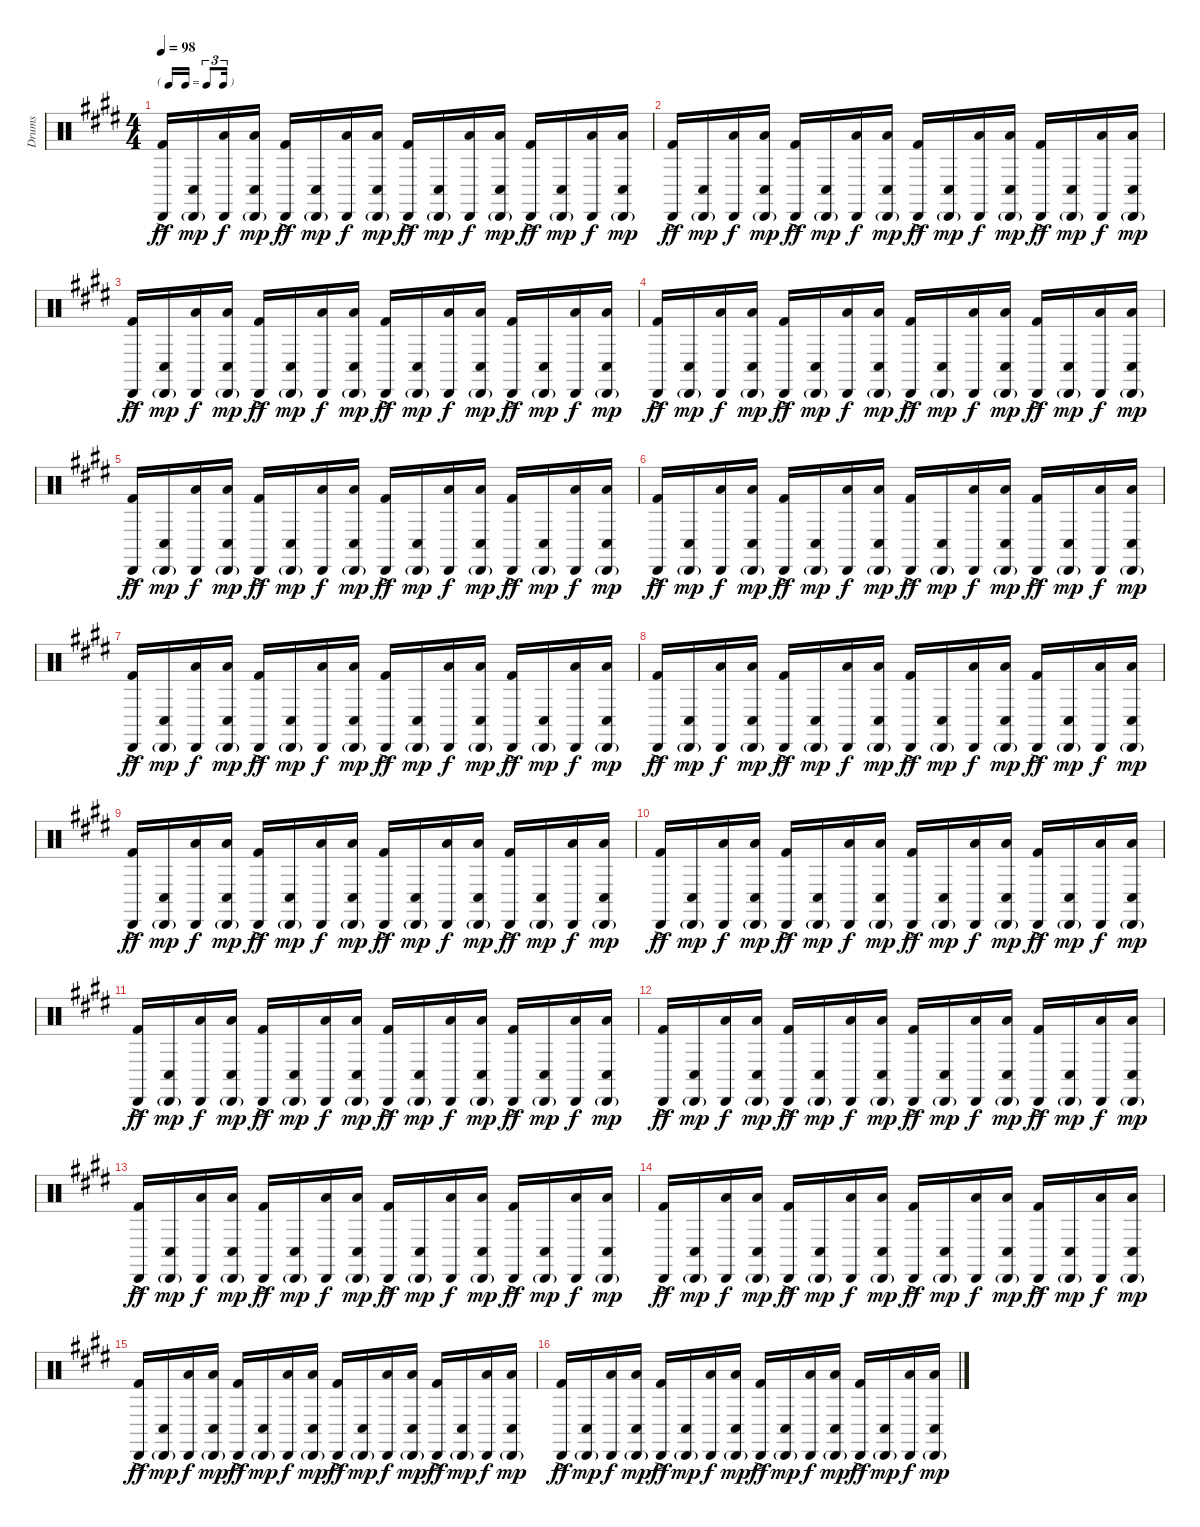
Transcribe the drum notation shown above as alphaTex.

\track ("Drums" "Drums") {instrument percussion}
\staff {score}
\articulation defaults
\ts (4 4)
\tf triplet16th
\tempo 98
\clef neutral
\ks e
("Cabasa (hit)" "Kick (hit) 2"{ac}).16{dy ff} ("Cabasa (hit)"{g} "Conga low (hit)").16{dy mp} ("Cabasa (hit)" "Low Tom (hit)").16{dy f} ("Cabasa (hit)"{g} "Low Tom (hit)" "Conga low (hit)").16{dy mp} ("Cabasa (hit)" "Kick (hit) 2"{ac}).16{dy ff} ("Cabasa (hit)"{g} "Conga low (hit)").16{dy mp} ("Cabasa (hit)" "Low Tom (hit)").16{dy f} ("Cabasa (hit)"{g} "Low Tom (hit)" "Conga low (hit)").16{dy mp} ("Cabasa (hit)" "Kick (hit) 2"{ac}).16{dy ff} ("Cabasa (hit)"{g} "Conga low (hit)").16{dy mp} ("Cabasa (hit)" "Low Tom (hit)").16{dy f} ("Cabasa (hit)"{g} "Low Tom (hit)" "Conga low (hit)").16{dy mp} ("Cabasa (hit)" "Kick (hit) 2"{ac}).16{dy ff} ("Cabasa (hit)"{g} "Conga low (hit)").16{dy mp} ("Cabasa (hit)" "Low Tom (hit)").16{dy f} ("Cabasa (hit)"{g} "Low Tom (hit)" "Conga low (hit)").16{dy mp} |
("Cabasa (hit)" "Kick (hit) 2"{ac}).16{dy ff} ("Cabasa (hit)"{g} "Conga low (hit)").16{dy mp} ("Cabasa (hit)" "Low Tom (hit)").16{dy f} ("Cabasa (hit)"{g} "Low Tom (hit)" "Conga low (hit)").16{dy mp} ("Cabasa (hit)" "Kick (hit) 2"{ac}).16{dy ff} ("Cabasa (hit)"{g} "Conga low (hit)").16{dy mp} ("Cabasa (hit)" "Low Tom (hit)").16{dy f} ("Cabasa (hit)"{g} "Low Tom (hit)" "Conga low (hit)").16{dy mp} ("Cabasa (hit)" "Kick (hit) 2"{ac}).16{dy ff} ("Cabasa (hit)"{g} "Conga low (hit)").16{dy mp} ("Cabasa (hit)" "Low Tom (hit)").16{dy f} ("Cabasa (hit)"{g} "Low Tom (hit)" "Conga low (hit)").16{dy mp} ("Cabasa (hit)" "Kick (hit) 2"{ac}).16{dy ff} ("Cabasa (hit)"{g} "Conga low (hit)").16{dy mp} ("Cabasa (hit)" "Low Tom (hit)").16{dy f} ("Cabasa (hit)"{g} "Low Tom (hit)" "Conga low (hit)").16{dy mp} |
("Cabasa (hit)" "Kick (hit) 2"{ac}).16{dy ff} ("Cabasa (hit)"{g} "Conga low (hit)").16{dy mp} ("Cabasa (hit)" "Low Tom (hit)").16{dy f} ("Cabasa (hit)"{g} "Low Tom (hit)" "Conga low (hit)").16{dy mp} ("Cabasa (hit)" "Kick (hit) 2"{ac}).16{dy ff} ("Cabasa (hit)"{g} "Conga low (hit)").16{dy mp} ("Cabasa (hit)" "Low Tom (hit)").16{dy f} ("Cabasa (hit)"{g} "Low Tom (hit)" "Conga low (hit)").16{dy mp} ("Cabasa (hit)" "Kick (hit) 2"{ac}).16{dy ff} ("Cabasa (hit)"{g} "Conga low (hit)").16{dy mp} ("Cabasa (hit)" "Low Tom (hit)").16{dy f} ("Cabasa (hit)"{g} "Low Tom (hit)" "Conga low (hit)").16{dy mp} ("Cabasa (hit)" "Kick (hit) 2"{ac}).16{dy ff} ("Cabasa (hit)"{g} "Conga low (hit)").16{dy mp} ("Cabasa (hit)" "Low Tom (hit)").16{dy f} ("Cabasa (hit)"{g} "Low Tom (hit)" "Conga low (hit)").16{dy mp} |
("Cabasa (hit)" "Kick (hit) 2"{ac}).16{dy ff} ("Cabasa (hit)"{g} "Conga low (hit)").16{dy mp} ("Cabasa (hit)" "Low Tom (hit)").16{dy f} ("Cabasa (hit)"{g} "Low Tom (hit)" "Conga low (hit)").16{dy mp} ("Cabasa (hit)" "Kick (hit) 2"{ac}).16{dy ff} ("Cabasa (hit)"{g} "Conga low (hit)").16{dy mp} ("Cabasa (hit)" "Low Tom (hit)").16{dy f} ("Cabasa (hit)"{g} "Low Tom (hit)" "Conga low (hit)").16{dy mp} ("Cabasa (hit)" "Kick (hit) 2"{ac}).16{dy ff} ("Cabasa (hit)"{g} "Conga low (hit)").16{dy mp} ("Cabasa (hit)" "Low Tom (hit)").16{dy f} ("Cabasa (hit)"{g} "Low Tom (hit)" "Conga low (hit)").16{dy mp} ("Cabasa (hit)" "Kick (hit) 2"{ac}).16{dy ff} ("Cabasa (hit)"{g} "Conga low (hit)").16{dy mp} ("Cabasa (hit)" "Low Tom (hit)").16{dy f} ("Cabasa (hit)"{g} "Low Tom (hit)" "Conga low (hit)").16{dy mp} |
("Cabasa (hit)" "Kick (hit) 2"{ac}).16{dy ff} ("Cabasa (hit)"{g} "Conga low (hit)").16{dy mp} ("Cabasa (hit)" "Low Tom (hit)").16{dy f} ("Cabasa (hit)"{g} "Low Tom (hit)" "Conga low (hit)").16{dy mp} ("Cabasa (hit)" "Kick (hit) 2"{ac}).16{dy ff} ("Cabasa (hit)"{g} "Conga low (hit)").16{dy mp} ("Cabasa (hit)" "Low Tom (hit)").16{dy f} ("Cabasa (hit)"{g} "Low Tom (hit)" "Conga low (hit)").16{dy mp} ("Cabasa (hit)" "Kick (hit) 2"{ac}).16{dy ff} ("Cabasa (hit)"{g} "Conga low (hit)").16{dy mp} ("Cabasa (hit)" "Low Tom (hit)").16{dy f} ("Cabasa (hit)"{g} "Low Tom (hit)" "Conga low (hit)").16{dy mp} ("Cabasa (hit)" "Kick (hit) 2"{ac}).16{dy ff} ("Cabasa (hit)"{g} "Conga low (hit)").16{dy mp} ("Cabasa (hit)" "Low Tom (hit)").16{dy f} ("Cabasa (hit)"{g} "Low Tom (hit)" "Conga low (hit)").16{dy mp} |
("Cabasa (hit)" "Kick (hit) 2"{ac}).16{dy ff} ("Cabasa (hit)"{g} "Conga low (hit)").16{dy mp} ("Cabasa (hit)" "Low Tom (hit)").16{dy f} ("Cabasa (hit)"{g} "Low Tom (hit)" "Conga low (hit)").16{dy mp} ("Cabasa (hit)" "Kick (hit) 2"{ac}).16{dy ff} ("Cabasa (hit)"{g} "Conga low (hit)").16{dy mp} ("Cabasa (hit)" "Low Tom (hit)").16{dy f} ("Cabasa (hit)"{g} "Low Tom (hit)" "Conga low (hit)").16{dy mp} ("Cabasa (hit)" "Kick (hit) 2"{ac}).16{dy ff} ("Cabasa (hit)"{g} "Conga low (hit)").16{dy mp} ("Cabasa (hit)" "Low Tom (hit)").16{dy f} ("Cabasa (hit)"{g} "Low Tom (hit)" "Conga low (hit)").16{dy mp} ("Cabasa (hit)" "Kick (hit) 2"{ac}).16{dy ff} ("Cabasa (hit)"{g} "Conga low (hit)").16{dy mp} ("Cabasa (hit)" "Low Tom (hit)").16{dy f} ("Cabasa (hit)"{g} "Low Tom (hit)" "Conga low (hit)").16{dy mp} |
("Cabasa (hit)" "Kick (hit) 2"{ac}).16{dy ff} ("Cabasa (hit)"{g} "Conga low (hit)").16{dy mp} ("Cabasa (hit)" "Low Tom (hit)").16{dy f} ("Cabasa (hit)"{g} "Low Tom (hit)" "Conga low (hit)").16{dy mp} ("Cabasa (hit)" "Kick (hit) 2"{ac}).16{dy ff} ("Cabasa (hit)"{g} "Conga low (hit)").16{dy mp} ("Cabasa (hit)" "Low Tom (hit)").16{dy f} ("Cabasa (hit)"{g} "Low Tom (hit)" "Conga low (hit)").16{dy mp} ("Cabasa (hit)" "Kick (hit) 2"{ac}).16{dy ff} ("Cabasa (hit)"{g} "Conga low (hit)").16{dy mp} ("Cabasa (hit)" "Low Tom (hit)").16{dy f} ("Cabasa (hit)"{g} "Low Tom (hit)" "Conga low (hit)").16{dy mp} ("Cabasa (hit)" "Kick (hit) 2"{ac}).16{dy ff} ("Cabasa (hit)"{g} "Conga low (hit)").16{dy mp} ("Cabasa (hit)" "Low Tom (hit)").16{dy f} ("Cabasa (hit)"{g} "Low Tom (hit)" "Conga low (hit)").16{dy mp} |
("Cabasa (hit)" "Kick (hit) 2"{ac}).16{dy ff} ("Cabasa (hit)"{g} "Conga low (hit)").16{dy mp} ("Cabasa (hit)" "Low Tom (hit)").16{dy f} ("Cabasa (hit)"{g} "Low Tom (hit)" "Conga low (hit)").16{dy mp} ("Cabasa (hit)" "Kick (hit) 2"{ac}).16{dy ff} ("Cabasa (hit)"{g} "Conga low (hit)").16{dy mp} ("Cabasa (hit)" "Low Tom (hit)").16{dy f} ("Cabasa (hit)"{g} "Low Tom (hit)" "Conga low (hit)").16{dy mp} ("Cabasa (hit)" "Kick (hit) 2"{ac}).16{dy ff} ("Cabasa (hit)"{g} "Conga low (hit)").16{dy mp} ("Cabasa (hit)" "Low Tom (hit)").16{dy f} ("Cabasa (hit)"{g} "Low Tom (hit)" "Conga low (hit)").16{dy mp} ("Cabasa (hit)" "Kick (hit) 2"{ac}).16{dy ff} ("Cabasa (hit)"{g} "Conga low (hit)").16{dy mp} ("Cabasa (hit)" "Low Tom (hit)").16{dy f} ("Cabasa (hit)"{g} "Low Tom (hit)" "Conga low (hit)").16{dy mp} |
("Cabasa (hit)" "Kick (hit) 2"{ac}).16{dy ff} ("Cabasa (hit)"{g} "Conga low (hit)").16{dy mp} ("Cabasa (hit)" "Low Tom (hit)").16{dy f} ("Cabasa (hit)"{g} "Low Tom (hit)" "Conga low (hit)").16{dy mp} ("Cabasa (hit)" "Kick (hit) 2"{ac}).16{dy ff} ("Cabasa (hit)"{g} "Conga low (hit)").16{dy mp} ("Cabasa (hit)" "Low Tom (hit)").16{dy f} ("Cabasa (hit)"{g} "Low Tom (hit)" "Conga low (hit)").16{dy mp} ("Cabasa (hit)" "Kick (hit) 2"{ac}).16{dy ff} ("Cabasa (hit)"{g} "Conga low (hit)").16{dy mp} ("Cabasa (hit)" "Low Tom (hit)").16{dy f} ("Cabasa (hit)"{g} "Low Tom (hit)" "Conga low (hit)").16{dy mp} ("Cabasa (hit)" "Kick (hit) 2"{ac}).16{dy ff} ("Cabasa (hit)"{g} "Conga low (hit)").16{dy mp} ("Cabasa (hit)" "Low Tom (hit)").16{dy f} ("Cabasa (hit)"{g} "Low Tom (hit)" "Conga low (hit)").16{dy mp} |
("Cabasa (hit)" "Kick (hit) 2"{ac}).16{dy ff} ("Cabasa (hit)"{g} "Conga low (hit)").16{dy mp} ("Cabasa (hit)" "Low Tom (hit)").16{dy f} ("Cabasa (hit)"{g} "Low Tom (hit)" "Conga low (hit)").16{dy mp} ("Cabasa (hit)" "Kick (hit) 2"{ac}).16{dy ff} ("Cabasa (hit)"{g} "Conga low (hit)").16{dy mp} ("Cabasa (hit)" "Low Tom (hit)").16{dy f} ("Cabasa (hit)"{g} "Low Tom (hit)" "Conga low (hit)").16{dy mp} ("Cabasa (hit)" "Kick (hit) 2"{ac}).16{dy ff} ("Cabasa (hit)"{g} "Conga low (hit)").16{dy mp} ("Cabasa (hit)" "Low Tom (hit)").16{dy f} ("Cabasa (hit)"{g} "Low Tom (hit)" "Conga low (hit)").16{dy mp} ("Cabasa (hit)" "Kick (hit) 2"{ac}).16{dy ff} ("Cabasa (hit)"{g} "Conga low (hit)").16{dy mp} ("Cabasa (hit)" "Low Tom (hit)").16{dy f} ("Cabasa (hit)"{g} "Low Tom (hit)" "Conga low (hit)").16{dy mp} |
("Cabasa (hit)" "Kick (hit) 2"{ac}).16{dy ff} ("Cabasa (hit)"{g} "Conga low (hit)").16{dy mp} ("Cabasa (hit)" "Low Tom (hit)").16{dy f} ("Cabasa (hit)"{g} "Low Tom (hit)" "Conga low (hit)").16{dy mp} ("Cabasa (hit)" "Kick (hit) 2"{ac}).16{dy ff} ("Cabasa (hit)"{g} "Conga low (hit)").16{dy mp} ("Cabasa (hit)" "Low Tom (hit)").16{dy f} ("Cabasa (hit)"{g} "Low Tom (hit)" "Conga low (hit)").16{dy mp} ("Cabasa (hit)" "Kick (hit) 2"{ac}).16{dy ff} ("Cabasa (hit)"{g} "Conga low (hit)").16{dy mp} ("Cabasa (hit)" "Low Tom (hit)").16{dy f} ("Cabasa (hit)"{g} "Low Tom (hit)" "Conga low (hit)").16{dy mp} ("Cabasa (hit)" "Kick (hit) 2"{ac}).16{dy ff} ("Cabasa (hit)"{g} "Conga low (hit)").16{dy mp} ("Cabasa (hit)" "Low Tom (hit)").16{dy f} ("Cabasa (hit)"{g} "Low Tom (hit)" "Conga low (hit)").16{dy mp} |
("Cabasa (hit)" "Kick (hit) 2"{ac}).16{dy ff} ("Cabasa (hit)"{g} "Conga low (hit)").16{dy mp} ("Cabasa (hit)" "Low Tom (hit)").16{dy f} ("Cabasa (hit)"{g} "Low Tom (hit)" "Conga low (hit)").16{dy mp} ("Cabasa (hit)" "Kick (hit) 2"{ac}).16{dy ff} ("Cabasa (hit)"{g} "Conga low (hit)").16{dy mp} ("Cabasa (hit)" "Low Tom (hit)").16{dy f} ("Cabasa (hit)"{g} "Low Tom (hit)" "Conga low (hit)").16{dy mp} ("Cabasa (hit)" "Kick (hit) 2"{ac}).16{dy ff} ("Cabasa (hit)"{g} "Conga low (hit)").16{dy mp} ("Cabasa (hit)" "Low Tom (hit)").16{dy f} ("Cabasa (hit)"{g} "Low Tom (hit)" "Conga low (hit)").16{dy mp} ("Cabasa (hit)" "Kick (hit) 2"{ac}).16{dy ff} ("Cabasa (hit)"{g} "Conga low (hit)").16{dy mp} ("Cabasa (hit)" "Low Tom (hit)").16{dy f} ("Cabasa (hit)"{g} "Low Tom (hit)" "Conga low (hit)").16{dy mp} |
("Cabasa (hit)" "Kick (hit) 2"{ac}).16{dy ff} ("Cabasa (hit)"{g} "Conga low (hit)").16{dy mp} ("Cabasa (hit)" "Low Tom (hit)").16{dy f} ("Cabasa (hit)"{g} "Low Tom (hit)" "Conga low (hit)").16{dy mp} ("Cabasa (hit)" "Kick (hit) 2"{ac}).16{dy ff} ("Cabasa (hit)"{g} "Conga low (hit)").16{dy mp} ("Cabasa (hit)" "Low Tom (hit)").16{dy f} ("Cabasa (hit)"{g} "Low Tom (hit)" "Conga low (hit)").16{dy mp} ("Cabasa (hit)" "Kick (hit) 2"{ac}).16{dy ff} ("Cabasa (hit)"{g} "Conga low (hit)").16{dy mp} ("Cabasa (hit)" "Low Tom (hit)").16{dy f} ("Cabasa (hit)"{g} "Low Tom (hit)" "Conga low (hit)").16{dy mp} ("Cabasa (hit)" "Kick (hit) 2"{ac}).16{dy ff} ("Cabasa (hit)"{g} "Conga low (hit)").16{dy mp} ("Cabasa (hit)" "Low Tom (hit)").16{dy f} ("Cabasa (hit)"{g} "Low Tom (hit)" "Conga low (hit)").16{dy mp} |
("Cabasa (hit)" "Kick (hit) 2"{ac}).16{dy ff} ("Cabasa (hit)"{g} "Conga low (hit)").16{dy mp} ("Cabasa (hit)" "Low Tom (hit)").16{dy f} ("Cabasa (hit)"{g} "Low Tom (hit)" "Conga low (hit)").16{dy mp} ("Cabasa (hit)" "Kick (hit) 2"{ac}).16{dy ff} ("Cabasa (hit)"{g} "Conga low (hit)").16{dy mp} ("Cabasa (hit)" "Low Tom (hit)").16{dy f} ("Cabasa (hit)"{g} "Low Tom (hit)" "Conga low (hit)").16{dy mp} ("Cabasa (hit)" "Kick (hit) 2"{ac}).16{dy ff} ("Cabasa (hit)"{g} "Conga low (hit)").16{dy mp} ("Cabasa (hit)" "Low Tom (hit)").16{dy f} ("Cabasa (hit)"{g} "Low Tom (hit)" "Conga low (hit)").16{dy mp} ("Cabasa (hit)" "Kick (hit) 2"{ac}).16{dy ff} ("Cabasa (hit)"{g} "Conga low (hit)").16{dy mp} ("Cabasa (hit)" "Low Tom (hit)").16{dy f} ("Cabasa (hit)"{g} "Low Tom (hit)" "Conga low (hit)").16{dy mp} |
("Cabasa (hit)" "Kick (hit) 2"{ac}).16{dy ff} ("Cabasa (hit)"{g} "Conga low (hit)").16{dy mp} ("Cabasa (hit)" "Low Tom (hit)").16{dy f} ("Cabasa (hit)"{g} "Low Tom (hit)" "Conga low (hit)").16{dy mp} ("Cabasa (hit)" "Kick (hit) 2"{ac}).16{dy ff} ("Cabasa (hit)"{g} "Conga low (hit)").16{dy mp} ("Cabasa (hit)" "Low Tom (hit)").16{dy f} ("Cabasa (hit)"{g} "Low Tom (hit)" "Conga low (hit)").16{dy mp} ("Cabasa (hit)" "Kick (hit) 2"{ac}).16{dy ff} ("Cabasa (hit)"{g} "Conga low (hit)").16{dy mp} ("Cabasa (hit)" "Low Tom (hit)").16{dy f} ("Cabasa (hit)"{g} "Low Tom (hit)" "Conga low (hit)").16{dy mp} ("Cabasa (hit)" "Kick (hit) 2"{ac}).16{dy ff} ("Cabasa (hit)"{g} "Conga low (hit)").16{dy mp} ("Cabasa (hit)" "Low Tom (hit)").16{dy f} ("Cabasa (hit)"{g} "Low Tom (hit)" "Conga low (hit)").16{dy mp} |
("Cabasa (hit)" "Kick (hit) 2"{ac}).16{dy ff} ("Cabasa (hit)"{g} "Conga low (hit)").16{dy mp} ("Cabasa (hit)" "Low Tom (hit)").16{dy f} ("Cabasa (hit)"{g} "Low Tom (hit)" "Conga low (hit)").16{dy mp} ("Cabasa (hit)" "Kick (hit) 2"{ac}).16{dy ff} ("Cabasa (hit)"{g} "Conga low (hit)").16{dy mp} ("Cabasa (hit)" "Low Tom (hit)").16{dy f} ("Cabasa (hit)"{g} "Low Tom (hit)" "Conga low (hit)").16{dy mp} ("Cabasa (hit)" "Kick (hit) 2"{ac}).16{dy ff} ("Cabasa (hit)"{g} "Conga low (hit)").16{dy mp} ("Cabasa (hit)" "Low Tom (hit)").16{dy f} ("Cabasa (hit)"{g} "Low Tom (hit)" "Conga low (hit)").16{dy mp} ("Cabasa (hit)" "Kick (hit) 2"{ac}).16{dy ff} ("Cabasa (hit)"{g} "Conga low (hit)").16{dy mp} ("Cabasa (hit)" "Low Tom (hit)").16{dy f} ("Cabasa (hit)"{g} "Low Tom (hit)" "Conga low (hit)").16{dy mp}
